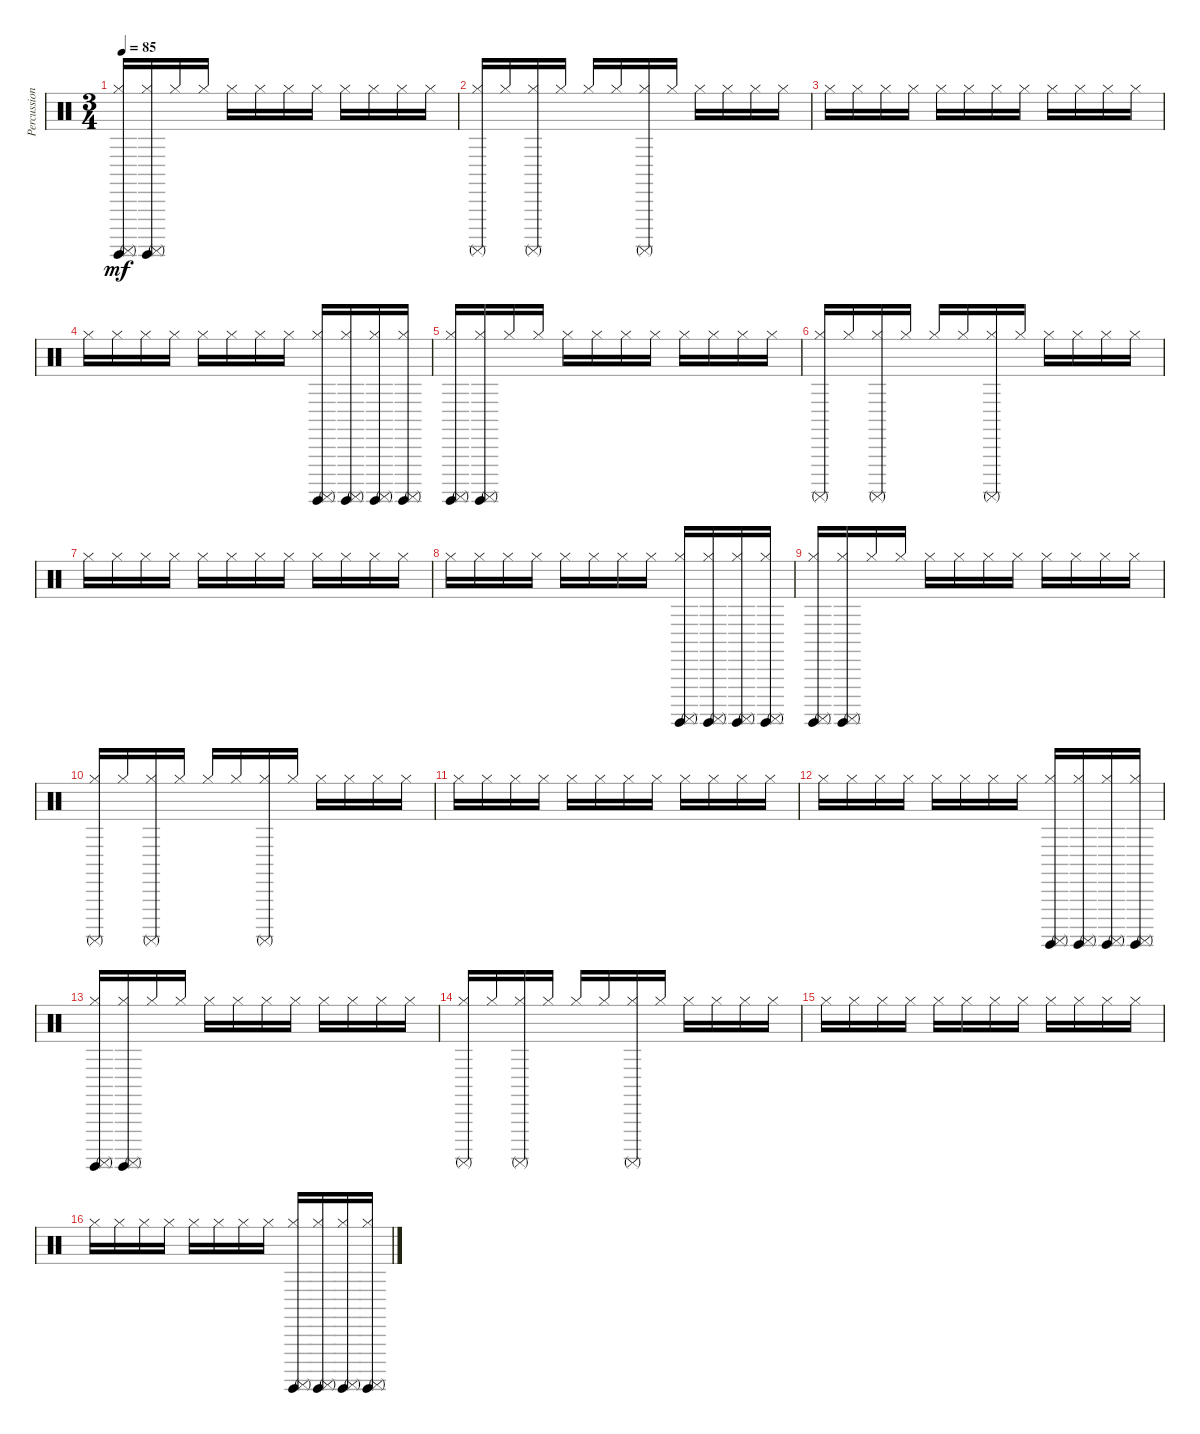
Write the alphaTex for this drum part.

\track ("Percussion" "Percussion") {instrument percussion}
\staff {score}
\articulation defaults
\ts (3 4)
\tempo 85
\clef neutral
\ks c
("Surdo (hit)" "Surdo (mute)" "Hi-Hat (closed)").16{dy mf} ("Surdo (hit)" "Surdo (mute)" "Hi-Hat (closed)").16 "Hi-Hat (closed)".16 "Hi-Hat (closed)".16 "Hi-Hat (closed)".16{volume 4} "Hi-Hat (closed)".16 "Hi-Hat (closed)".16 "Hi-Hat (closed)".16 "Hi-Hat (closed)".16 "Hi-Hat (closed)".16 "Hi-Hat (closed)".16 "Hi-Hat (closed)".16 |
("Surdo (mute)" "Hi-Hat (closed)").16 "Hi-Hat (closed)".16 ("Surdo (mute)" "Hi-Hat (closed)").16 "Hi-Hat (closed)".16 "Hi-Hat (closed)".16 "Hi-Hat (closed)".16 ("Surdo (mute)" "Hi-Hat (closed)").16 "Hi-Hat (closed)".16 "Hi-Hat (closed)".16 "Hi-Hat (closed)".16 "Hi-Hat (closed)".16 "Hi-Hat (closed)".16 |
"Hi-Hat (closed)".16 "Hi-Hat (closed)".16 "Hi-Hat (closed)".16 "Hi-Hat (closed)".16 "Hi-Hat (closed)".16 "Hi-Hat (closed)".16 "Hi-Hat (closed)".16 "Hi-Hat (closed)".16 "Hi-Hat (closed)".16 "Hi-Hat (closed)".16 "Hi-Hat (closed)".16 "Hi-Hat (closed)".16 |
"Hi-Hat (closed)".16 "Hi-Hat (closed)".16 "Hi-Hat (closed)".16 "Hi-Hat (closed)".16 "Hi-Hat (closed)".16 "Hi-Hat (closed)".16 "Hi-Hat (closed)".16 "Hi-Hat (closed)".16 ("Surdo (hit)" "Surdo (mute)" "Hi-Hat (closed)").16{volume 8} ("Surdo (hit)" "Surdo (mute)" "Hi-Hat (closed)").16 ("Surdo (hit)" "Surdo (mute)" "Hi-Hat (closed)").16 ("Surdo (hit)" "Surdo (mute)" "Hi-Hat (closed)").16 |
("Surdo (hit)" "Surdo (mute)" "Hi-Hat (closed)").16 ("Surdo (hit)" "Surdo (mute)" "Hi-Hat (closed)").16 "Hi-Hat (closed)".16 "Hi-Hat (closed)".16 "Hi-Hat (closed)".16{volume 4} "Hi-Hat (closed)".16 "Hi-Hat (closed)".16 "Hi-Hat (closed)".16 "Hi-Hat (closed)".16 "Hi-Hat (closed)".16 "Hi-Hat (closed)".16 "Hi-Hat (closed)".16 |
("Surdo (mute)" "Hi-Hat (closed)").16 "Hi-Hat (closed)".16 ("Surdo (mute)" "Hi-Hat (closed)").16 "Hi-Hat (closed)".16 "Hi-Hat (closed)".16 "Hi-Hat (closed)".16 ("Surdo (mute)" "Hi-Hat (closed)").16 "Hi-Hat (closed)".16 "Hi-Hat (closed)".16 "Hi-Hat (closed)".16 "Hi-Hat (closed)".16 "Hi-Hat (closed)".16 |
"Hi-Hat (closed)".16 "Hi-Hat (closed)".16 "Hi-Hat (closed)".16 "Hi-Hat (closed)".16 "Hi-Hat (closed)".16 "Hi-Hat (closed)".16 "Hi-Hat (closed)".16 "Hi-Hat (closed)".16 "Hi-Hat (closed)".16 "Hi-Hat (closed)".16 "Hi-Hat (closed)".16 "Hi-Hat (closed)".16 |
"Hi-Hat (closed)".16 "Hi-Hat (closed)".16 "Hi-Hat (closed)".16 "Hi-Hat (closed)".16 "Hi-Hat (closed)".16 "Hi-Hat (closed)".16 "Hi-Hat (closed)".16 "Hi-Hat (closed)".16 ("Surdo (hit)" "Surdo (mute)" "Hi-Hat (closed)").16{volume 8} ("Surdo (hit)" "Surdo (mute)" "Hi-Hat (closed)").16 ("Surdo (hit)" "Surdo (mute)" "Hi-Hat (closed)").16 ("Surdo (hit)" "Surdo (mute)" "Hi-Hat (closed)").16 |
("Surdo (hit)" "Surdo (mute)" "Hi-Hat (closed)").16 ("Surdo (hit)" "Surdo (mute)" "Hi-Hat (closed)").16 "Hi-Hat (closed)".16 "Hi-Hat (closed)".16 "Hi-Hat (closed)".16{volume 4} "Hi-Hat (closed)".16 "Hi-Hat (closed)".16 "Hi-Hat (closed)".16 "Hi-Hat (closed)".16 "Hi-Hat (closed)".16 "Hi-Hat (closed)".16 "Hi-Hat (closed)".16 |
("Surdo (mute)" "Hi-Hat (closed)").16 "Hi-Hat (closed)".16 ("Surdo (mute)" "Hi-Hat (closed)").16 "Hi-Hat (closed)".16 "Hi-Hat (closed)".16 "Hi-Hat (closed)".16 ("Surdo (mute)" "Hi-Hat (closed)").16 "Hi-Hat (closed)".16 "Hi-Hat (closed)".16 "Hi-Hat (closed)".16 "Hi-Hat (closed)".16 "Hi-Hat (closed)".16 |
"Hi-Hat (closed)".16 "Hi-Hat (closed)".16 "Hi-Hat (closed)".16 "Hi-Hat (closed)".16 "Hi-Hat (closed)".16 "Hi-Hat (closed)".16 "Hi-Hat (closed)".16 "Hi-Hat (closed)".16 "Hi-Hat (closed)".16 "Hi-Hat (closed)".16 "Hi-Hat (closed)".16 "Hi-Hat (closed)".16 |
"Hi-Hat (closed)".16 "Hi-Hat (closed)".16 "Hi-Hat (closed)".16 "Hi-Hat (closed)".16 "Hi-Hat (closed)".16 "Hi-Hat (closed)".16 "Hi-Hat (closed)".16 "Hi-Hat (closed)".16 ("Surdo (hit)" "Surdo (mute)" "Hi-Hat (closed)").16{volume 8} ("Surdo (hit)" "Surdo (mute)" "Hi-Hat (closed)").16 ("Surdo (hit)" "Surdo (mute)" "Hi-Hat (closed)").16 ("Surdo (hit)" "Surdo (mute)" "Hi-Hat (closed)").16 |
("Surdo (hit)" "Surdo (mute)" "Hi-Hat (closed)").16 ("Surdo (hit)" "Surdo (mute)" "Hi-Hat (closed)").16 "Hi-Hat (closed)".16 "Hi-Hat (closed)".16 "Hi-Hat (closed)".16{volume 4} "Hi-Hat (closed)".16 "Hi-Hat (closed)".16 "Hi-Hat (closed)".16 "Hi-Hat (closed)".16 "Hi-Hat (closed)".16 "Hi-Hat (closed)".16 "Hi-Hat (closed)".16 |
("Surdo (mute)" "Hi-Hat (closed)").16 "Hi-Hat (closed)".16 ("Surdo (mute)" "Hi-Hat (closed)").16 "Hi-Hat (closed)".16 "Hi-Hat (closed)".16 "Hi-Hat (closed)".16 ("Surdo (mute)" "Hi-Hat (closed)").16 "Hi-Hat (closed)".16 "Hi-Hat (closed)".16 "Hi-Hat (closed)".16 "Hi-Hat (closed)".16 "Hi-Hat (closed)".16 |
"Hi-Hat (closed)".16 "Hi-Hat (closed)".16 "Hi-Hat (closed)".16 "Hi-Hat (closed)".16 "Hi-Hat (closed)".16 "Hi-Hat (closed)".16 "Hi-Hat (closed)".16 "Hi-Hat (closed)".16 "Hi-Hat (closed)".16 "Hi-Hat (closed)".16 "Hi-Hat (closed)".16 "Hi-Hat (closed)".16 |
"Hi-Hat (closed)".16 "Hi-Hat (closed)".16 "Hi-Hat (closed)".16 "Hi-Hat (closed)".16 "Hi-Hat (closed)".16 "Hi-Hat (closed)".16 "Hi-Hat (closed)".16 "Hi-Hat (closed)".16 ("Surdo (hit)" "Surdo (mute)" "Hi-Hat (closed)").16{volume 8} ("Surdo (hit)" "Surdo (mute)" "Hi-Hat (closed)").16 ("Surdo (hit)" "Surdo (mute)" "Hi-Hat (closed)").16 ("Surdo (hit)" "Surdo (mute)" "Hi-Hat (closed)").16
